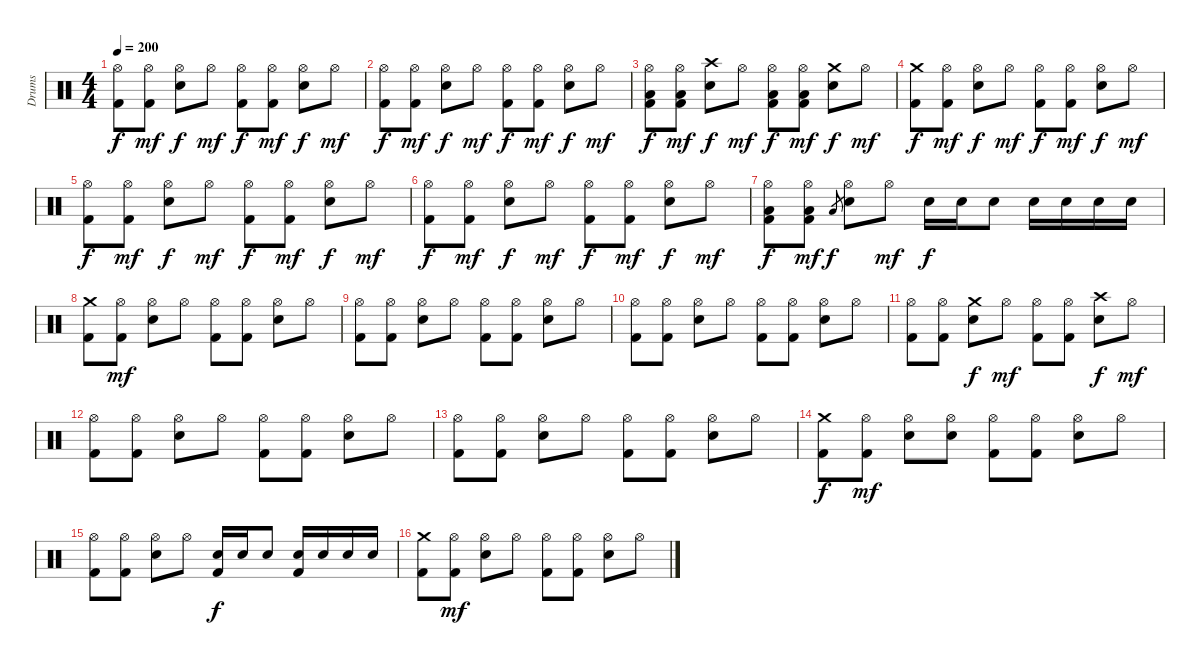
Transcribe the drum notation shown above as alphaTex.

\track ("Drums" "Drums") {instrument percussion}
\staff {score}
\articulation defaults
\ts (4 4)
\tempo 200
\clef neutral
\ks c
("Hi-Hat (open)" "Kick (hit) 2").8{dy f} ("Hi-Hat (open)" "Kick (hit) 2").8{dy mf} ("Hi-Hat (open)" "Electric Snare (hit)").8{dy f} "Hi-Hat (open)".8{dy mf} ("Hi-Hat (open)" "Kick (hit) 2").8{dy f} ("Hi-Hat (open)" "Kick (hit) 2").8{dy mf} ("Hi-Hat (open)" "Electric Snare (hit)").8{dy f} "Hi-Hat (open)".8{dy mf} |
("Hi-Hat (open)" "Kick (hit) 2").8{dy f} ("Hi-Hat (open)" "Kick (hit) 2").8{dy mf} ("Hi-Hat (open)" "Electric Snare (hit)").8{dy f} "Hi-Hat (open)".8{dy mf} ("Hi-Hat (open)" "Kick (hit) 2").8{dy f} ("Hi-Hat (open)" "Kick (hit) 2").8{dy mf} ("Hi-Hat (open)" "Electric Snare (hit)").8{dy f} "Hi-Hat (open)".8{dy mf} |
("Hi-Hat (open)" "Low Tom (hit)" "Kick (hit) 2").8{dy f} ("Hi-Hat (open)" "Low Tom (hit)" "Kick (hit) 2").8{dy mf} ("Crash high (hit)" "Electric Snare (hit)").8{dy f} "Hi-Hat (open)".8{dy mf} ("Hi-Hat (open)" "Low Tom (hit)" "Kick (hit) 2").8{dy f} ("Hi-Hat (open)" "Low Tom (hit)" "Kick (hit) 2").8{dy mf} ("Crash medium (hit)" "Electric Snare (hit)").8{dy f} "Hi-Hat (open)".8{dy mf} |
("Crash medium (hit)" "Kick (hit) 2").8{dy f} ("Hi-Hat (open)" "Kick (hit) 2").8{dy mf} ("Hi-Hat (open)" "Electric Snare (hit)").8{dy f} "Hi-Hat (open)".8{dy mf} ("Hi-Hat (open)" "Kick (hit) 2").8{dy f} ("Hi-Hat (open)" "Kick (hit) 2").8{dy mf} ("Hi-Hat (open)" "Electric Snare (hit)").8{dy f} "Hi-Hat (open)".8{dy mf} |
("Hi-Hat (open)" "Kick (hit) 2").8{dy f} ("Hi-Hat (open)" "Kick (hit) 2").8{dy mf} ("Hi-Hat (open)" "Electric Snare (hit)").8{dy f} "Hi-Hat (open)".8{dy mf} ("Hi-Hat (open)" "Kick (hit) 2").8{dy f} ("Hi-Hat (open)" "Kick (hit) 2").8{dy mf} ("Hi-Hat (open)" "Electric Snare (hit)").8{dy f} "Hi-Hat (open)".8{dy mf} |
("Hi-Hat (open)" "Kick (hit) 2").8{dy f} ("Hi-Hat (open)" "Kick (hit) 2").8{dy mf} ("Hi-Hat (open)" "Electric Snare (hit)").8{dy f} "Hi-Hat (open)".8{dy mf} ("Hi-Hat (open)" "Kick (hit) 2").8{dy f} ("Hi-Hat (open)" "Kick (hit) 2").8{dy mf} ("Hi-Hat (open)" "Electric Snare (hit)").8{dy f} "Hi-Hat (open)".8{dy mf} |
("Hi-Hat (open)" "Low Tom (hit)" "Kick (hit) 2").8{dy f} ("Hi-Hat (open)" "Low Tom (hit)" "Kick (hit) 2").8{dy mf} "Low Tom (hit)".8{gr dy f} ("Hi-Hat (open)" "Electric Snare (hit)").8 "Hi-Hat (open)".8{dy mf} "Electric Snare (hit)".16{dy f} "Electric Snare (hit)".16 "Electric Snare (hit)".8 "Electric Snare (hit)".16 "Electric Snare (hit)".16 "Electric Snare (hit)".16 "Electric Snare (hit)".16 |
("Crash medium (hit)" "Kick (hit) 2").8 ("Hi-Hat (open)" "Kick (hit) 2").8{dy mf} ("Hi-Hat (open)" "Electric Snare (hit)").8 "Hi-Hat (open)".8 ("Hi-Hat (open)" "Kick (hit) 2").8 ("Hi-Hat (open)" "Kick (hit) 2").8 ("Hi-Hat (open)" "Electric Snare (hit)").8 "Hi-Hat (open)".8 |
("Hi-Hat (open)" "Kick (hit) 2").8 ("Hi-Hat (open)" "Kick (hit) 2").8 ("Hi-Hat (open)" "Electric Snare (hit)").8 "Hi-Hat (open)".8 ("Hi-Hat (open)" "Kick (hit) 2").8 ("Hi-Hat (open)" "Kick (hit) 2").8 ("Hi-Hat (open)" "Electric Snare (hit)").8 "Hi-Hat (open)".8 |
("Hi-Hat (open)" "Kick (hit) 2").8 ("Hi-Hat (open)" "Kick (hit) 2").8 ("Hi-Hat (open)" "Electric Snare (hit)").8 "Hi-Hat (open)".8 ("Hi-Hat (open)" "Kick (hit) 2").8 ("Hi-Hat (open)" "Kick (hit) 2").8 ("Hi-Hat (open)" "Electric Snare (hit)").8 "Hi-Hat (open)".8 |
("Hi-Hat (open)" "Kick (hit) 2").8 ("Hi-Hat (open)" "Kick (hit) 2").8 ("Crash medium (hit)" "Electric Snare (hit)").8{dy f} "Hi-Hat (open)".8{dy mf} ("Hi-Hat (open)" "Kick (hit) 2").8 ("Hi-Hat (open)" "Kick (hit) 2").8 ("Crash high (hit)" "Electric Snare (hit)").8{dy f} "Hi-Hat (open)".8{dy mf} |
("Hi-Hat (open)" "Kick (hit) 2").8 ("Hi-Hat (open)" "Kick (hit) 2").8 ("Hi-Hat (open)" "Electric Snare (hit)").8 "Hi-Hat (open)".8 ("Hi-Hat (open)" "Kick (hit) 2").8 ("Hi-Hat (open)" "Kick (hit) 2").8 ("Hi-Hat (open)" "Electric Snare (hit)").8 "Hi-Hat (open)".8 |
("Hi-Hat (open)" "Kick (hit) 2").8 ("Hi-Hat (open)" "Kick (hit) 2").8 ("Hi-Hat (open)" "Electric Snare (hit)").8 "Hi-Hat (open)".8 ("Hi-Hat (open)" "Kick (hit) 2").8 ("Hi-Hat (open)" "Kick (hit) 2").8 ("Hi-Hat (open)" "Electric Snare (hit)").8 "Hi-Hat (open)".8 |
("Crash medium (hit)" "Kick (hit) 2").8{dy f} ("Hi-Hat (open)" "Kick (hit) 2").8{dy mf} ("Hi-Hat (open)" "Electric Snare (hit)").8 ("Hi-Hat (open)" "Electric Snare (hit)").8 ("Hi-Hat (open)" "Kick (hit) 2").8 ("Hi-Hat (open)" "Kick (hit) 2").8 ("Hi-Hat (open)" "Electric Snare (hit)").8 "Hi-Hat (open)".8 |
("Hi-Hat (open)" "Kick (hit) 2").8 ("Hi-Hat (open)" "Kick (hit) 2").8 ("Hi-Hat (open)" "Electric Snare (hit)").8 "Hi-Hat (open)".8 ("Electric Snare (hit)" "Kick (hit) 2").16{dy f} "Electric Snare (hit)".16 "Electric Snare (hit)".8 ("Electric Snare (hit)" "Kick (hit) 2").16 "Electric Snare (hit)".16 "Electric Snare (hit)".16 "Electric Snare (hit)".16 |
("Crash medium (hit)" "Kick (hit) 2").8 ("Hi-Hat (open)" "Kick (hit) 2").8{dy mf} ("Hi-Hat (open)" "Electric Snare (hit)").8 "Hi-Hat (open)".8 ("Hi-Hat (open)" "Kick (hit) 2").8 ("Hi-Hat (open)" "Kick (hit) 2").8 ("Hi-Hat (open)" "Electric Snare (hit)").8 "Hi-Hat (open)".8
